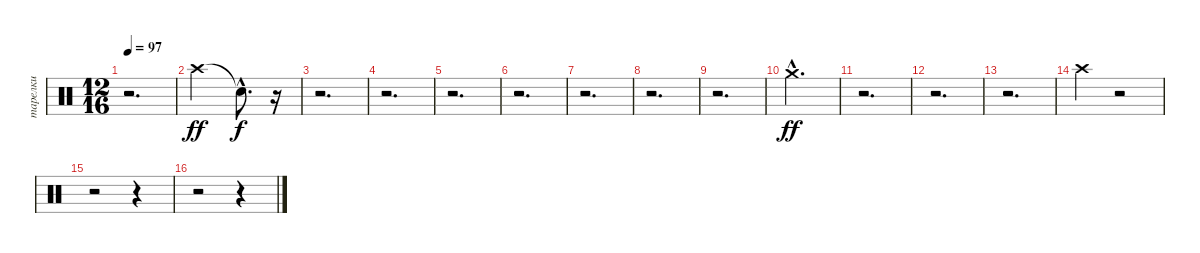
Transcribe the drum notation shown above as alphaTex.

\track ("тарелки" "тарелки") {instrument percussion}
\staff {score}
\articulation defaults
\ts (12 16)
\tempo 97
\clef neutral
\ks c
r.2{d dy ff} |
"Crash high (hit)".2 "Snare (hit)"{hac t}.8{d dy f} r.16 |
r.2{d} |
r.2{d} |
r.2{d} |
r.2{d} |
r.2{d} |
r.2{d} |
r.2{d} |
"Crash medium (hit)"{hac}.2{d dy ff} |
r.2{d} |
r.2{d} |
r.2{d} |
"Crash high (hit)".4 r.2 |
r.2 r.4 |
r.2 r.4
